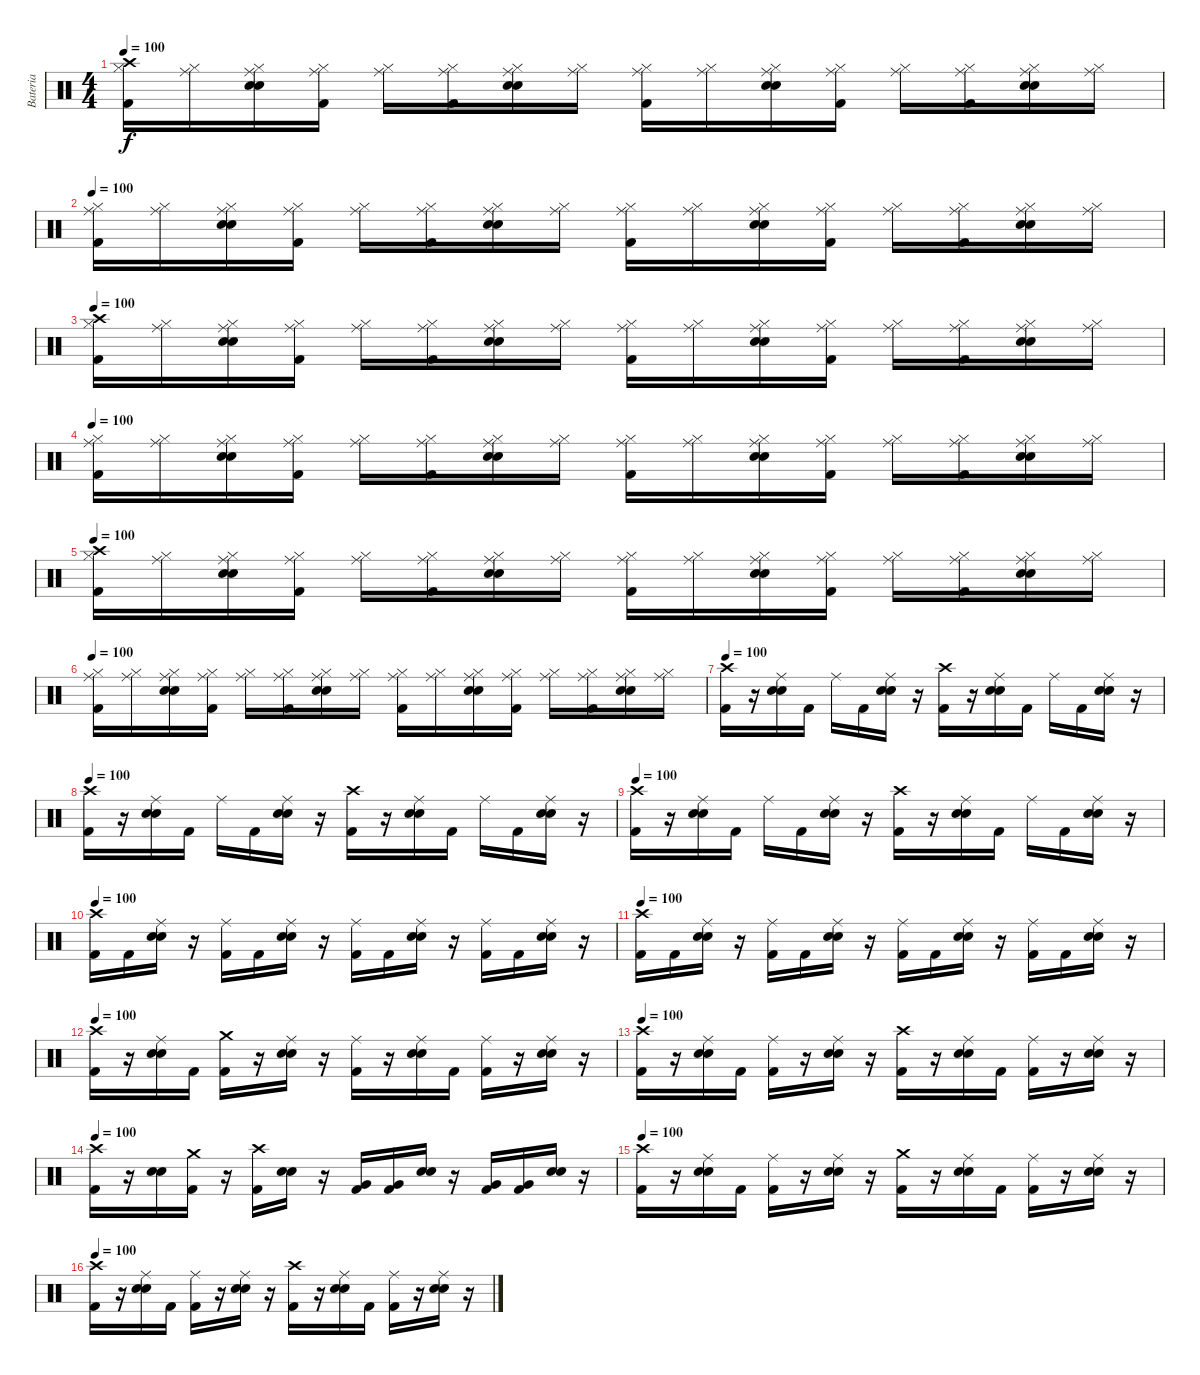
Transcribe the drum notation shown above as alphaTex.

\track ("Bateria" "Bateria") {instrument percussion}
\staff {score}
\articulation defaults
\ts (4 4)
\tempo 100
\clef neutral
\ks c
("Crash high (hit)" "Hi-Hat (closed)" "Kick (hit) 2").16{dy f} ("Ride (middle)" "Hi-Hat (closed)").16 ("Ride (middle)" "Hi-Hat (closed)" "Snare (hit) 2" "Electric Snare (hit)").16 ("Ride (middle)" "Hi-Hat (closed)" "Kick (hit) 2").16 ("Ride (middle)" "Hi-Hat (closed)").16 ("Ride (middle)" "Hi-Hat (closed)" "Kick (hit) 2").16 ("Ride (middle)" "Hi-Hat (closed)" "Snare (hit) 2" "Electric Snare (hit)").16 ("Ride (middle)" "Hi-Hat (closed)").16 ("Ride (middle)" "Hi-Hat (closed)" "Kick (hit) 2").16 ("Ride (middle)" "Hi-Hat (closed)").16 ("Ride (middle)" "Hi-Hat (closed)" "Snare (hit) 2" "Electric Snare (hit)").16 ("Ride (middle)" "Hi-Hat (closed)" "Kick (hit) 2").16 ("Ride (middle)" "Hi-Hat (closed)").16 ("Ride (middle)" "Hi-Hat (closed)" "Kick (hit) 2").16 ("Ride (middle)" "Hi-Hat (closed)" "Snare (hit) 2" "Electric Snare (hit)").16 ("Ride (middle)" "Hi-Hat (closed)").16 |
\tempo 100
("Ride (middle)" "Hi-Hat (closed)" "Kick (hit) 2").16 ("Ride (middle)" "Hi-Hat (closed)").16 ("Ride (middle)" "Hi-Hat (closed)" "Snare (hit) 2" "Electric Snare (hit)").16 ("Ride (middle)" "Hi-Hat (closed)" "Kick (hit) 2").16 ("Ride (middle)" "Hi-Hat (closed)").16 ("Ride (middle)" "Hi-Hat (closed)" "Kick (hit) 2").16 ("Ride (middle)" "Hi-Hat (closed)" "Snare (hit) 2" "Electric Snare (hit)").16 ("Ride (middle)" "Hi-Hat (closed)").16 ("Ride (middle)" "Hi-Hat (closed)" "Kick (hit) 2").16 ("Ride (middle)" "Hi-Hat (closed)").16 ("Ride (middle)" "Hi-Hat (closed)" "Snare (hit) 2" "Electric Snare (hit)").16 ("Ride (middle)" "Hi-Hat (closed)" "Kick (hit) 2").16 ("Ride (middle)" "Hi-Hat (closed)").16 ("Ride (middle)" "Hi-Hat (closed)" "Kick (hit) 2").16 ("Ride (middle)" "Hi-Hat (closed)" "Snare (hit) 2" "Electric Snare (hit)").16 ("Ride (middle)" "Hi-Hat (closed)").16 |
\tempo 100
("Crash high (hit)" "Hi-Hat (closed)" "Kick (hit) 2").16 ("Ride (middle)" "Hi-Hat (closed)").16 ("Ride (middle)" "Hi-Hat (closed)" "Snare (hit) 2" "Electric Snare (hit)").16 ("Ride (middle)" "Hi-Hat (closed)" "Kick (hit) 2").16 ("Ride (middle)" "Hi-Hat (closed)").16 ("Ride (middle)" "Hi-Hat (closed)" "Kick (hit) 2").16 ("Ride (middle)" "Hi-Hat (closed)" "Snare (hit) 2" "Electric Snare (hit)").16 ("Ride (middle)" "Hi-Hat (closed)").16 ("Ride (middle)" "Hi-Hat (closed)" "Kick (hit) 2").16 ("Ride (middle)" "Hi-Hat (closed)").16 ("Ride (middle)" "Hi-Hat (closed)" "Snare (hit) 2" "Electric Snare (hit)").16 ("Ride (middle)" "Hi-Hat (closed)" "Kick (hit) 2").16 ("Ride (middle)" "Hi-Hat (closed)").16 ("Ride (middle)" "Hi-Hat (closed)" "Kick (hit) 2").16 ("Ride (middle)" "Hi-Hat (closed)" "Snare (hit) 2" "Electric Snare (hit)").16 ("Ride (middle)" "Hi-Hat (closed)").16 |
\tempo 100
("Ride (middle)" "Hi-Hat (closed)" "Kick (hit) 2").16 ("Ride (middle)" "Hi-Hat (closed)").16 ("Ride (middle)" "Hi-Hat (closed)" "Snare (hit) 2" "Electric Snare (hit)").16 ("Ride (middle)" "Hi-Hat (closed)" "Kick (hit) 2").16 ("Ride (middle)" "Hi-Hat (closed)").16 ("Ride (middle)" "Hi-Hat (closed)" "Kick (hit) 2").16 ("Ride (middle)" "Hi-Hat (closed)" "Snare (hit) 2" "Electric Snare (hit)").16 ("Ride (middle)" "Hi-Hat (closed)").16 ("Ride (middle)" "Hi-Hat (closed)" "Kick (hit) 2").16 ("Ride (middle)" "Hi-Hat (closed)").16 ("Ride (middle)" "Hi-Hat (closed)" "Snare (hit) 2" "Electric Snare (hit)").16 ("Ride (middle)" "Hi-Hat (closed)" "Kick (hit) 2").16 ("Ride (middle)" "Hi-Hat (closed)").16 ("Ride (middle)" "Hi-Hat (closed)" "Kick (hit) 2").16 ("Ride (middle)" "Hi-Hat (closed)" "Snare (hit) 2" "Electric Snare (hit)").16 ("Ride (middle)" "Hi-Hat (closed)").16 |
\tempo 100
("Crash high (hit)" "Hi-Hat (closed)" "Kick (hit) 2").16 ("Ride (middle)" "Hi-Hat (closed)").16 ("Ride (middle)" "Hi-Hat (closed)" "Snare (hit) 2" "Electric Snare (hit)").16 ("Ride (middle)" "Hi-Hat (closed)" "Kick (hit) 2").16 ("Ride (middle)" "Hi-Hat (closed)").16 ("Ride (middle)" "Hi-Hat (closed)" "Kick (hit) 2").16 ("Ride (middle)" "Hi-Hat (closed)" "Snare (hit) 2" "Electric Snare (hit)").16 ("Ride (middle)" "Hi-Hat (closed)").16 ("Ride (middle)" "Hi-Hat (closed)" "Kick (hit) 2").16 ("Ride (middle)" "Hi-Hat (closed)").16 ("Ride (middle)" "Hi-Hat (closed)" "Snare (hit) 2" "Electric Snare (hit)").16 ("Ride (middle)" "Hi-Hat (closed)" "Kick (hit) 2").16 ("Ride (middle)" "Hi-Hat (closed)").16 ("Ride (middle)" "Hi-Hat (closed)" "Kick (hit) 2").16 ("Ride (middle)" "Hi-Hat (closed)" "Snare (hit) 2" "Electric Snare (hit)").16 ("Ride (middle)" "Hi-Hat (closed)").16 |
\tempo 100
("Ride (middle)" "Hi-Hat (closed)" "Kick (hit) 2").16 ("Ride (middle)" "Hi-Hat (closed)").16 ("Ride (middle)" "Hi-Hat (closed)" "Snare (hit) 2" "Electric Snare (hit)").16 ("Ride (middle)" "Hi-Hat (closed)" "Kick (hit) 2").16 ("Ride (middle)" "Hi-Hat (closed)").16 ("Ride (middle)" "Hi-Hat (closed)" "Kick (hit) 2").16 ("Ride (middle)" "Hi-Hat (closed)" "Snare (hit) 2" "Electric Snare (hit)").16 ("Ride (middle)" "Hi-Hat (closed)").16 ("Ride (middle)" "Hi-Hat (closed)" "Kick (hit) 2").16 ("Ride (middle)" "Hi-Hat (closed)").16 ("Ride (middle)" "Hi-Hat (closed)" "Snare (hit) 2" "Electric Snare (hit)").16 ("Ride (middle)" "Hi-Hat (closed)" "Kick (hit) 2").16 ("Ride (middle)" "Hi-Hat (closed)").16 ("Ride (middle)" "Hi-Hat (closed)" "Kick (hit) 2").16 ("Ride (middle)" "Hi-Hat (closed)" "Snare (hit) 2" "Electric Snare (hit)").16 ("Ride (middle)" "Hi-Hat (closed)").16 |
\tempo 100
("Crash high (hit)" "Kick (hit) 2").16 r.16 ("Ride (middle)" "Snare (hit) 2" "Electric Snare (hit)").16 "Kick (hit) 2".16 "Ride (middle)".16 "Kick (hit) 2".16 ("Ride (middle)" "Snare (hit) 2" "Electric Snare (hit)").16 r.16 ("Crash high (hit)" "Kick (hit) 2").16 r.16 ("Ride (middle)" "Snare (hit) 2" "Electric Snare (hit)").16 "Kick (hit) 2".16 "Ride (middle)".16 "Kick (hit) 2".16 ("Ride (middle)" "Snare (hit) 2" "Electric Snare (hit)").16 r.16 |
\tempo 100
("Crash high (hit)" "Kick (hit) 2").16 r.16 ("Ride (middle)" "Snare (hit) 2" "Electric Snare (hit)").16 "Kick (hit) 2".16 "Ride (middle)".16 "Kick (hit) 2".16 ("Ride (middle)" "Snare (hit) 2" "Electric Snare (hit)").16 r.16 ("Crash high (hit)" "Kick (hit) 2").16 r.16 ("Ride (middle)" "Snare (hit) 2" "Electric Snare (hit)").16 "Kick (hit) 2".16 "Ride (middle)".16 "Kick (hit) 2".16 ("Ride (middle)" "Snare (hit) 2" "Electric Snare (hit)").16 r.16 |
\tempo 100
("Crash high (hit)" "Kick (hit) 2").16 r.16 ("Ride (middle)" "Snare (hit) 2" "Electric Snare (hit)").16 "Kick (hit) 2".16 "Ride (middle)".16 "Kick (hit) 2".16 ("Ride (middle)" "Snare (hit) 2" "Electric Snare (hit)").16 r.16 ("Crash high (hit)" "Kick (hit) 2").16 r.16 ("Ride (middle)" "Snare (hit) 2" "Electric Snare (hit)").16 "Kick (hit) 2".16 "Ride (middle)".16 "Kick (hit) 2".16 ("Ride (middle)" "Snare (hit) 2" "Electric Snare (hit)").16 r.16 |
\tempo 100
("Crash high (hit)" "Kick (hit) 2").16 "Kick (hit) 2".16 ("Ride (middle)" "Snare (hit) 2" "Electric Snare (hit)").16 r.16 ("Ride (middle)" "Kick (hit) 2").16 "Kick (hit) 2".16 ("Ride (middle)" "Snare (hit) 2" "Electric Snare (hit)").16 r.16 ("Ride (middle)" "Kick (hit) 2").16 "Kick (hit) 2".16 ("Ride (middle)" "Snare (hit) 2" "Electric Snare (hit)").16 r.16 ("Ride (middle)" "Kick (hit) 2").16 "Kick (hit) 2".16 ("Ride (middle)" "Snare (hit) 2" "Electric Snare (hit)").16 r.16 |
\tempo 100
("Crash high (hit)" "Kick (hit) 2").16 "Kick (hit) 2".16 ("Ride (middle)" "Snare (hit) 2" "Electric Snare (hit)").16 r.16 ("Ride (middle)" "Kick (hit) 2").16 "Kick (hit) 2".16 ("Ride (middle)" "Snare (hit) 2" "Electric Snare (hit)").16 r.16 ("Ride (middle)" "Kick (hit) 2").16 "Kick (hit) 2".16 ("Ride (middle)" "Snare (hit) 2" "Electric Snare (hit)").16 r.16 ("Ride (middle)" "Kick (hit) 2").16 "Kick (hit) 2".16 ("Ride (middle)" "Snare (hit) 2" "Electric Snare (hit)").16 r.16 |
\tempo 100
("Crash high (hit)" "Kick (hit) 2").16 r.16 ("Ride (middle)" "Snare (hit) 2" "Electric Snare (hit)").16 "Kick (hit) 2".16 ("Crash medium (hit)" "Kick (hit) 2").16 r.16 ("Ride (middle)" "Snare (hit) 2" "Electric Snare (hit)").16 r.16 ("Ride (middle)" "Kick (hit) 2").16 r.16 ("Ride (middle)" "Snare (hit) 2" "Electric Snare (hit)").16 "Kick (hit) 2".16 ("Ride (middle)" "Kick (hit) 2").16 r.16 ("Ride (middle)" "Snare (hit) 2" "Electric Snare (hit)").16 r.16 |
\tempo 100
("Crash high (hit)" "Kick (hit) 2").16 r.16 ("Ride (middle)" "Snare (hit) 2" "Electric Snare (hit)").16 "Kick (hit) 2".16 ("Ride (middle)" "Kick (hit) 2").16 r.16 ("Ride (middle)" "Snare (hit) 2" "Electric Snare (hit)").16 r.16 ("Crash high (hit)" "Kick (hit) 2").16 r.16 ("Ride (middle)" "Snare (hit) 2" "Electric Snare (hit)").16 "Kick (hit) 2".16 ("Ride (middle)" "Kick (hit) 2").16 r.16 ("Ride (middle)" "Snare (hit) 2" "Electric Snare (hit)").16 r.16 |
\tempo 100
("Crash high (hit)" "Kick (hit) 2").16 r.16 ("Snare (hit) 2" "Electric Snare (hit)").16 ("Crash medium (hit)" "Kick (hit) 2").16 r.16 ("Crash high (hit)" "Kick (hit) 2").16 ("Snare (hit) 2" "Electric Snare (hit)").16 r.16 ("Very Low Tom (hit)" "Kick (hit) 2").16 ("Very Low Tom (hit)" "Kick (hit) 2").16 ("Snare (hit) 2" "Electric Snare (hit)").16 r.16 ("Very Low Tom (hit)" "Kick (hit) 2").16 ("Very Low Tom (hit)" "Kick (hit) 2").16 ("Snare (hit) 2" "Electric Snare (hit)").16 r.16 |
\tempo 100
("Crash high (hit)" "Kick (hit) 2").16 r.16 ("Ride (middle)" "Snare (hit) 2" "Electric Snare (hit)").16 "Kick (hit) 2".16 ("Ride (middle)" "Kick (hit) 2").16 r.16 ("Ride (middle)" "Snare (hit) 2" "Electric Snare (hit)").16 r.16 ("Crash medium (hit)" "Kick (hit) 2").16 r.16 ("Ride (middle)" "Snare (hit) 2" "Electric Snare (hit)").16 "Kick (hit) 2".16 ("Ride (middle)" "Kick (hit) 2").16 r.16 ("Ride (middle)" "Snare (hit) 2" "Electric Snare (hit)").16 r.16 |
\tempo 100
("Crash high (hit)" "Kick (hit) 2").16 r.16 ("Ride (middle)" "Snare (hit) 2" "Electric Snare (hit)").16 "Kick (hit) 2".16 ("Ride (middle)" "Kick (hit) 2").16 r.16 ("Ride (middle)" "Snare (hit) 2" "Electric Snare (hit)").16 r.16 ("Crash high (hit)" "Kick (hit) 2").16 r.16 ("Ride (middle)" "Snare (hit) 2" "Electric Snare (hit)").16 "Kick (hit) 2".16 ("Ride (middle)" "Kick (hit) 2").16 r.16 ("Ride (middle)" "Snare (hit) 2" "Electric Snare (hit)").16 r.16
